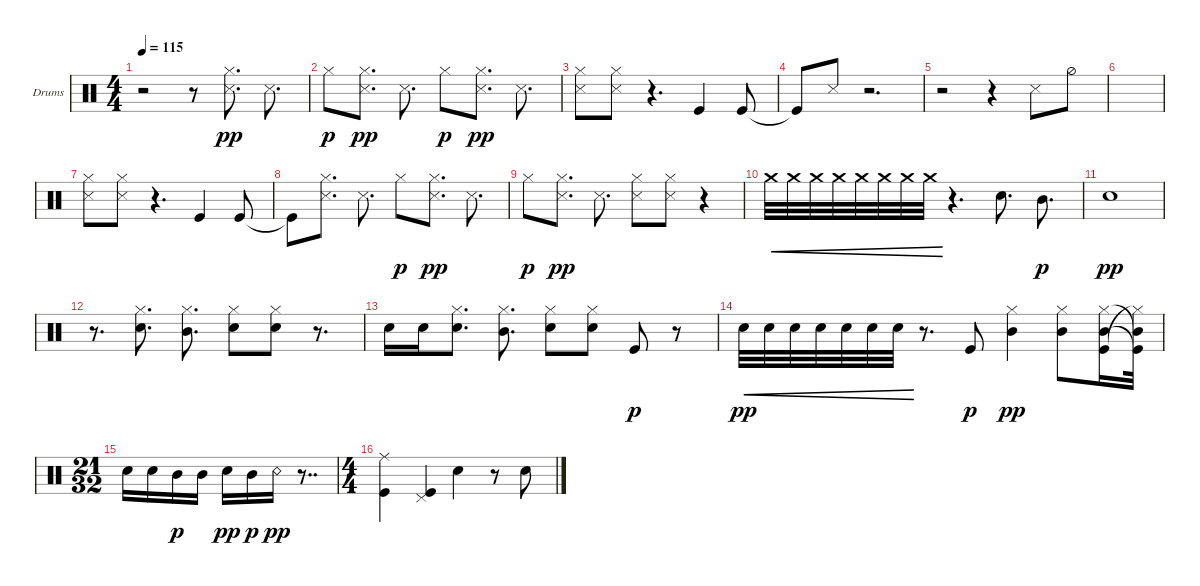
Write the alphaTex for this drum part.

\defaultSystemsLayout 4
\bracketExtendMode groupsimilarinstruments
\firstSystemTrackNameOrientation horizontal
\otherSystemsTrackNameOrientation horizontal
\track ("Drumkit" "Drums") {instrument percussion}
\staff {score}
\articulation defaults
\ts (4 4)
\tempo 115
\clef neutral
\ks c
r.2{dy ppp} r.8 ("Hi-Hat (closed)" "Snare (side stick) 3").8{d dy pp} "Snare (side stick) 3".8{d} |
"Hi-Hat (closed)".8{dy p} ("Hi-Hat (closed)" "Snare (side stick) 3").8{d dy pp} "Snare (side stick) 3".8{d} "Hi-Hat (closed)".8{dy p} ("Hi-Hat (closed)" "Snare (side stick) 3").8{d dy pp} "Snare (side stick) 3".8{d} |
("Hi-Hat (closed)" "Snare (side stick) 3").8 ("Hi-Hat (closed)" "Snare (side stick) 3").8 r.4{d} "Kick (hit)".4 "Kick (hit)".8 |
"Kick (hit)"{t}.8 "Snare (side stick) 3".8 r.2{d} |
r.2 r.4 "Snare (side stick) 3".8 "Hi-Hat (half)".8 |
|
("Hi-Hat (closed)" "Snare (side stick) 3").8 ("Hi-Hat (closed)" "Snare (side stick) 3").8 r.4{d} "Kick (hit)".4 "Kick (hit)".8 |
"Kick (hit)"{t}.8 ("Hi-Hat (closed)" "Snare (side stick) 3").8{d} "Snare (side stick) 3".8{d} "Hi-Hat (closed)".8{dy p} ("Hi-Hat (closed)" "Snare (side stick) 3").8{d dy pp} "Snare (side stick) 3".8{d} |
"Hi-Hat (closed)".8{dy p} ("Hi-Hat (closed)" "Snare (side stick) 3").8{d dy pp} "Snare (side stick) 3".8{d} ("Hi-Hat (closed)" "Snare (side stick) 3").8 ("Hi-Hat (closed)" "Snare (side stick) 3").8 r.4 |
"Crash medium (hit)".32{cre} "Crash medium (hit)".32{cre} "Crash medium (hit)".32{cre} "Crash medium (hit)".32{cre} "Crash medium (hit)".32{cre} "Crash medium (hit)".32{cre} "Crash medium (hit)".32{cre} "Crash medium (hit)".32{cre} r.4{d} "Snare (hit) 2".8{d} "Mid Tom (hit)".8{d dy p} |
"Snare (hit) 2".1{dy pp} |
r.8{d} ("Snare (hit) 2" "Hi-Hat (closed)").8{d} ("Mid Tom (hit)" "Hi-Hat (closed)").8{d} ("Snare (hit) 2" "Hi-Hat (closed)").8 ("Snare (hit) 2" "Hi-Hat (closed)").8 r.8{d} |
"Snare (hit) 2".16 "Snare (hit) 2".16 ("Snare (hit) 2" "Hi-Hat (closed)").8{d} ("Mid Tom (hit)" "Hi-Hat (closed)").8{d} ("Snare (hit) 2" "Hi-Hat (closed)").8 ("Snare (hit) 2" "Hi-Hat (closed)").8 "Kick (hit)".8{dy p} r.8 |
"Snare (hit) 2".32{cre dy pp} "Snare (hit) 2".32{cre} "Snare (hit) 2".32{cre} "Snare (hit) 2".32{cre} "Snare (hit) 2".32{cre} "Snare (hit) 2".32{cre} "Snare (hit) 2".32{cre} r.8{d} "Kick (hit)".8{dy p} ("Mid Tom (hit)" "Hi-Hat (closed)").4{dy pp} ("Mid Tom (hit)" "Hi-Hat (closed)").8 ("Mid Tom (hit)" "Hi-Hat (closed)" "Kick (hit)").16 ("Kick (hit)"{t} "Mid Tom (hit)"{t} "Hi-Hat (closed)"{t}).32 |
\ts (21 32)
"Snare (hit) 2".16 "Snare (hit) 2".16 "Mid Tom (hit)".16{dy p} "Mid Tom (hit)".16 "Snare (hit) 2".16{dy pp} "Mid Tom (hit)".16{dy p} "Snare (rim shot)".16{dy pp} r.8{dd} |
\ts (4 4)
("Kick (hit)" "Ride (middle)").4 ("Kick (hit)" "Pedal Hi-Hat (hit)").4 "Snare (hit) 2".4 r.8 "Snare (hit) 2".8
